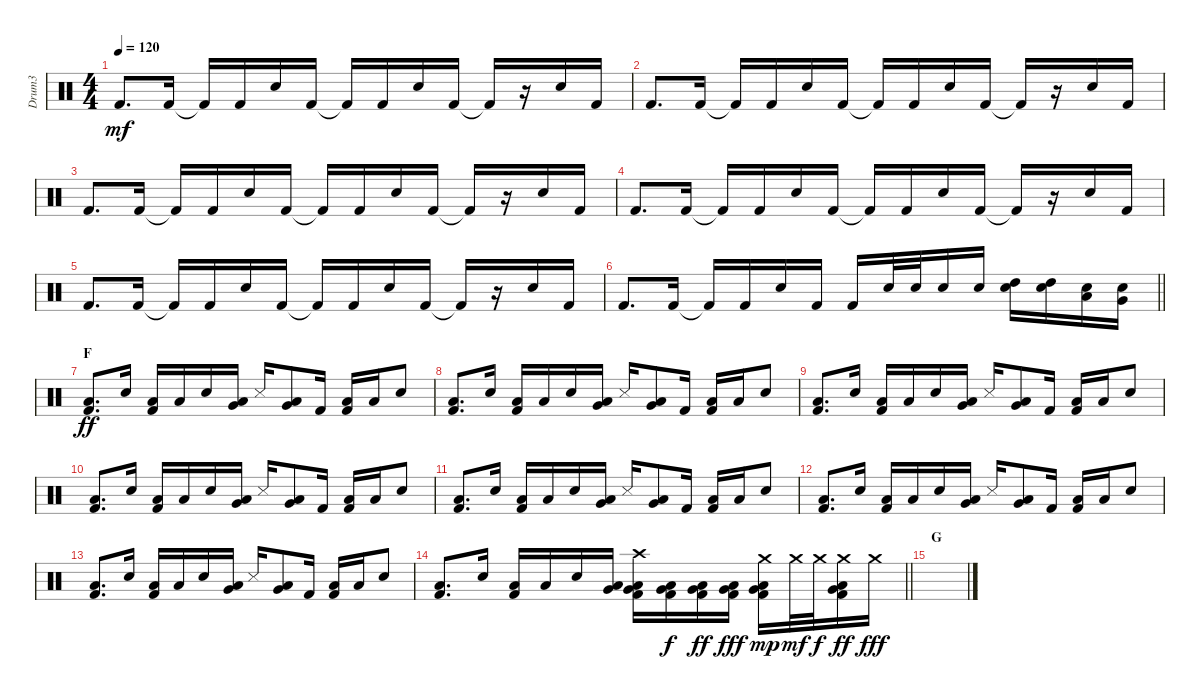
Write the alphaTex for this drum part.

\track ("Drum3" "Drum3") {instrument percussion}
\staff {score}
\articulation defaults
\ts (4 4)
\tempo 120
\clef neutral
\ks c "Kick (hit) 2".8{d dy mf} "Kick (hit) 2".16 "Kick (hit) 2"{t}.16 "Kick (hit) 2".16 "Electric Snare (hit)".16 "Kick (hit) 2".16 "Kick (hit) 2"{t}.16 "Kick (hit) 2".16 "Electric Snare (hit)".16 "Kick (hit) 2".16 "Kick (hit) 2"{t}.16
r.16 "Electric Snare (hit)".16 "Kick (hit) 2".16 |
"Kick (hit) 2".8{d} "Kick (hit) 2".16 "Kick (hit) 2"{t}.16 "Kick (hit) 2".16 "Electric Snare (hit)".16 "Kick (hit) 2".16 "Kick (hit) 2"{t}.16 "Kick (hit) 2".16 "Electric Snare (hit)".16 "Kick (hit) 2".16 "Kick (hit) 2"{t}.16 r.16 "Electric Snare (hit)".16 "Kick (hit) 2".16 |
"Kick (hit) 2".8{d} "Kick (hit) 2".16 "Kick (hit) 2"{t}.16 "Kick (hit) 2".16 "Electric Snare (hit)".16 "Kick (hit) 2".16 "Kick (hit) 2"{t}.16 "Kick (hit) 2".16 "Electric Snare (hit)".16 "Kick (hit) 2".16 "Kick (hit) 2"{t}.16 r.16 "Electric Snare (hit)".16 "Kick (hit) 2".16 |
"Kick (hit) 2".8{d} "Kick (hit) 2".16 "Kick (hit) 2"{t}.16 "Kick (hit) 2".16 "Electric Snare (hit)".16 "Kick (hit) 2".16 "Kick (hit) 2"{t}.16 "Kick (hit) 2".16 "Electric Snare (hit)".16 "Kick (hit) 2".16 "Kick (hit) 2"{t}.16 r.16 "Electric Snare (hit)".16 "Kick (hit) 2".16 |
"Kick (hit) 2".8{d} "Kick (hit) 2".16 "Kick (hit) 2"{t}.16 "Kick (hit) 2".16 "Electric Snare (hit)".16 "Kick (hit) 2".16 "Kick (hit) 2"{t}.16 "Kick (hit) 2".16 "Electric Snare (hit)".16 "Kick (hit) 2".16 "Kick (hit) 2"{t}.16 r.16 "Electric Snare (hit)".16 "Kick (hit) 2".16 |
\barLineRight lightlight "Kick (hit) 2".8{d} "Kick (hit) 2".16 "Kick (hit) 2"{t}.16 "Kick (hit) 2".16 "Electric Snare (hit)".16 "Kick (hit) 2".16 "Kick (hit) 2".16 "Electric Snare (hit)".32 "Electric Snare (hit)".32 "Electric Snare (hit)".16 "Electric Snare (hit)".16
("Electric Snare (hit)" "High Tom (hit)").16 ("Electric Snare (hit)" "High Tom (hit)").16 ("Electric Snare (hit)" "Low Tom (hit)").16 ("Electric Snare (hit)" "Very Low Tom (hit)").16 |
\section ("" "F")
("Kick (hit) 2" "Low Floor Tom (hit)").8{d dy ff} "Electric Snare (hit)".16 ("Kick (hit) 2" "Low Floor Tom (hit)").16 "Low Floor Tom (hit)".16 "Electric Snare (hit)".16 ("Very Low Tom (hit)" "Low Tom (hit)").16 "Snare (side stick) 3".16 ("Low Tom (hit)" "Very Low Tom (hit)").8 "Kick (hit) 2".16 ("Kick (hit) 2" "Low Floor Tom (hit)").16 "Low Floor Tom (hit)".16 "Electric Snare (hit)".8 |
("Kick (hit) 2" "Low Floor Tom (hit)").8{d} "Electric Snare (hit)".16 ("Kick (hit) 2" "Low Floor Tom (hit)").16 "Low Floor Tom (hit)".16 "Electric Snare (hit)".16 ("Very Low Tom (hit)" "Low Tom (hit)").16 "Snare (side stick) 3".16 ("Low Tom (hit)" "Very Low Tom (hit)").8 "Kick (hit) 2".16 ("Kick (hit) 2" "Low Floor Tom (hit)").16 "Low Floor Tom (hit)".16 "Electric Snare (hit)".8 |
("Kick (hit) 2" "Low Floor Tom (hit)").8{d} "Electric Snare (hit)".16 ("Kick (hit) 2" "Low Floor Tom (hit)").16 "Low Floor Tom (hit)".16 "Electric Snare (hit)".16 ("Very Low Tom (hit)" "Low Tom (hit)").16 "Snare (side stick) 3".16 ("Low Tom (hit)" "Very Low Tom (hit)").8 "Kick (hit) 2".16 ("Kick (hit) 2" "Low Floor Tom (hit)").16 "Low Floor Tom (hit)".16 "Electric Snare (hit)".8 |
("Kick (hit) 2" "Low Floor Tom (hit)").8{d} "Electric Snare (hit)".16 ("Kick (hit) 2" "Low Floor Tom (hit)").16 "Low Floor Tom (hit)".16 "Electric Snare (hit)".16 ("Very Low Tom (hit)" "Low Tom (hit)").16 "Snare (side stick) 3".16 ("Low Tom (hit)" "Very Low Tom (hit)").8 "Kick (hit) 2".16 ("Kick (hit) 2" "Low Floor Tom (hit)").16 "Low Floor Tom (hit)".16 "Electric Snare (hit)".8 |
("Kick (hit) 2" "Low Floor Tom (hit)").8{d} "Electric Snare (hit)".16 ("Kick (hit) 2" "Low Floor Tom (hit)").16 "Low Floor Tom (hit)".16 "Electric Snare (hit)".16 ("Very Low Tom (hit)" "Low Tom (hit)").16 "Snare (side stick) 3".16 ("Low Tom (hit)" "Very Low Tom (hit)").8 "Kick (hit) 2".16 ("Kick (hit) 2" "Low Floor Tom (hit)").16 "Low Floor Tom (hit)".16 "Electric Snare (hit)".8 |
("Kick (hit) 2" "Low Floor Tom (hit)").8{d} "Electric Snare (hit)".16 ("Kick (hit) 2" "Low Floor Tom (hit)").16 "Low Floor Tom (hit)".16 "Electric Snare (hit)".16 ("Very Low Tom (hit)" "Low Tom (hit)").16 "Snare (side stick) 3".16 ("Low Tom (hit)" "Very Low Tom (hit)").8 "Kick (hit) 2".16 ("Kick (hit) 2" "Low Floor Tom (hit)").16 "Low Floor Tom (hit)".16 "Electric Snare (hit)".8 |
("Kick (hit) 2" "Low Floor Tom (hit)").8{d} "Electric Snare (hit)".16 ("Kick (hit) 2" "Low Floor Tom (hit)").16 "Low Floor Tom (hit)".16 "Electric Snare (hit)".16 ("Very Low Tom (hit)" "Low Tom (hit)").16 "Snare (side stick) 3".16 ("Low Tom (hit)" "Very Low Tom (hit)").8 "Kick (hit) 2".16 ("Kick (hit) 2" "Low Floor Tom (hit)").16 "Low Floor Tom (hit)".16 "Electric Snare (hit)".8 |
\barLineRight lightlight
("Kick (hit) 2" "Low Floor Tom (hit)").8{d} "Electric Snare (hit)".16 ("Kick (hit) 2" "Low Floor Tom (hit)").16 "Low Floor Tom (hit)".16 "Electric Snare (hit)".16 ("Very Low Tom (hit)" "Low Tom (hit)").16 ("Kick (hit) 2" "Low Floor Tom (hit)" "Very Low Tom (hit)" "Crash high (hit)").16 ("Kick (hit) 2" "Low Floor Tom (hit)" "Very Low Tom (hit)").16{dy f} ("Kick (hit) 2" "Low Floor Tom (hit)" "Very Low Tom (hit)").16{dy ff} ("Kick (hit) 2" "Low Floor Tom (hit)" "Very Low Tom (hit)").16{dy fff} ("Kick (hit) 2" "Low Floor Tom (hit)" "Very Low Tom (hit)" "Crash medium (hit)").16{dy mp} "Crash medium (hit)".32{dy mf} "Crash medium (hit)".32{dy f} ("Kick (hit) 2" "Low Floor Tom (hit)" "Very Low Tom (hit)" "Crash medium (hit)").16{dy ff} "Crash medium (hit)".16{dy fff} |
\section ("" "G")
